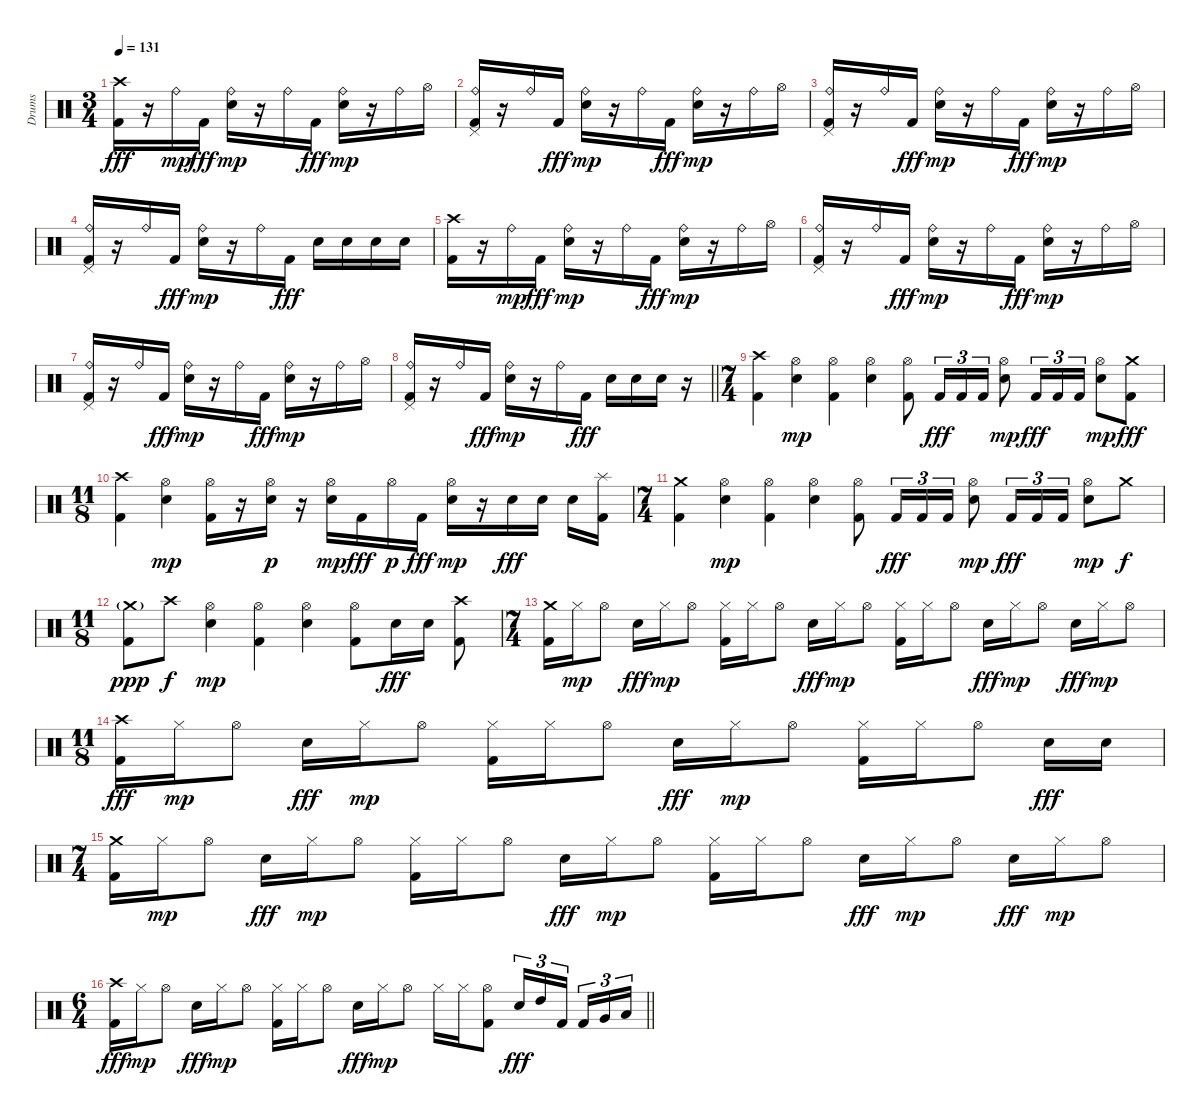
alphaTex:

\track ("Drums" "Drums") {instrument percussion}
\staff {score}
\articulation defaults
\ts (3 4)
\tempo 131
\clef neutral
\ks c
("Kick (hit) 2" "Crash high (hit)").16{dy fff} r.16 "Ride (bell)".16{dy mp} "Kick (hit) 2".16{dy fff} ("Electric Snare (hit)" "Ride (bell)").16{dy mp} r.16 "Ride (bell)".16 "Kick (hit) 2".16{dy fff} ("Electric Snare (hit)" "Ride (bell)").16{dy mp} r.16 "Ride (bell)".16 "Hi-Hat (open)".16 |
("Kick (hit) 2" "Ride (bell)" "Pedal Hi-Hat (hit)").16 r.16 "Ride (bell)".16 "Kick (hit) 2".16{dy fff} ("Electric Snare (hit)" "Ride (bell)").16{dy mp} r.16 "Ride (bell)".16 "Kick (hit) 2".16{dy fff} ("Electric Snare (hit)" "Ride (bell)").16{dy mp} r.16 "Ride (bell)".16 "Hi-Hat (open)".16 |
("Kick (hit) 2" "Ride (bell)" "Pedal Hi-Hat (hit)").16 r.16 "Ride (bell)".16 "Kick (hit) 2".16{dy fff} ("Electric Snare (hit)" "Ride (bell)").16{dy mp} r.16 "Ride (bell)".16 "Kick (hit) 2".16{dy fff} ("Electric Snare (hit)" "Ride (bell)").16{dy mp} r.16 "Ride (bell)".16 "Hi-Hat (open)".16 |
("Kick (hit) 2" "Ride (bell)" "Pedal Hi-Hat (hit)").16 r.16 "Ride (bell)".16 "Kick (hit) 2".16{dy fff} ("Electric Snare (hit)" "Ride (bell)").16{dy mp} r.16 "Ride (bell)".16 "Kick (hit) 2".16{dy fff} "Electric Snare (hit)".16 "Electric Snare (hit)".16 "Electric Snare (hit)".16 "Electric Snare (hit)".16 |
("Kick (hit) 2" "Crash high (hit)").16 r.16 "Ride (bell)".16{dy mp} "Kick (hit) 2".16{dy fff} ("Electric Snare (hit)" "Ride (bell)").16{dy mp} r.16 "Ride (bell)".16 "Kick (hit) 2".16{dy fff} ("Electric Snare (hit)" "Ride (bell)").16{dy mp} r.16 "Ride (bell)".16 "Hi-Hat (open)".16 |
("Kick (hit) 2" "Ride (bell)" "Pedal Hi-Hat (hit)").16 r.16 "Ride (bell)".16 "Kick (hit) 2".16{dy fff} ("Electric Snare (hit)" "Ride (bell)").16{dy mp} r.16 "Ride (bell)".16 "Kick (hit) 2".16{dy fff} ("Electric Snare (hit)" "Ride (bell)").16{dy mp} r.16 "Ride (bell)".16 "Hi-Hat (open)".16 |
("Kick (hit) 2" "Ride (bell)" "Pedal Hi-Hat (hit)").16 r.16 "Ride (bell)".16 "Kick (hit) 2".16{dy fff} ("Electric Snare (hit)" "Ride (bell)").16{dy mp} r.16 "Ride (bell)".16 "Kick (hit) 2".16{dy fff} ("Electric Snare (hit)" "Ride (bell)").16{dy mp} r.16 "Ride (bell)".16 "Hi-Hat (open)".16 |
\barLineRight lightlight
("Kick (hit) 2" "Ride (bell)" "Pedal Hi-Hat (hit)").16 r.16 "Ride (bell)".16 "Kick (hit) 2".16{dy fff} ("Electric Snare (hit)" "Ride (bell)").16{dy mp} r.16 "Ride (bell)".16 "Kick (hit) 2".16{dy fff} "Electric Snare (hit)".16 "Electric Snare (hit)".16 "Electric Snare (hit)".16 r.16 |
\ts (7 4)
("Kick (hit) 2" "Crash high (hit)").4 ("Electric Snare (hit)" "Hi-Hat (open)").4{dy mp} ("Kick (hit) 2" "Hi-Hat (open)").4 ("Electric Snare (hit)" "Hi-Hat (open)").4 ("Kick (hit) 2" "Hi-Hat (open)").8 "Kick (hit) 2".16{tu (3 2) dy fff} "Kick (hit) 2".16{tu (3 2)} "Kick (hit) 2".16{tu (3 2)} ("Electric Snare (hit)" "Hi-Hat (open)").8{dy mp} "Kick (hit) 2".16{tu (3 2) dy fff} "Kick (hit) 2".16{tu (3 2)} "Kick (hit) 2".16{tu (3 2)} ("Electric Snare (hit)" "Hi-Hat (open)").8{dy mp} ("Kick (hit) 2" "Crash medium (hit)").8{dy fff} |
\ts (11 8)
("Kick (hit) 2" "Crash high (hit)").4 ("Electric Snare (hit)" "Hi-Hat (open)").4{dy mp} ("Kick (hit) 2" "Hi-Hat (open)").16 r.16 ("Electric Snare (hit)" "Hi-Hat (open)").16{dy p} r.16 ("Electric Snare (hit)" "Hi-Hat (open)").16{dy mp} "Kick (hit) 2".16{dy fff} "Hi-Hat (open)".16{dy p} "Kick (hit) 2".16{dy fff} ("Electric Snare (hit)" "Hi-Hat (open)").16{dy mp} r.16 "Electric Snare (hit)".16{dy fff} "Electric Snare (hit)".16 "Electric Snare (hit)".16 ("Kick (hit) 2" "Splash (hit)").16 |
\ts (7 4)
("Kick (hit) 2" "Crash medium (hit)").4 ("Electric Snare (hit)" "Hi-Hat (open)").4{dy mp} ("Kick (hit) 2" "Hi-Hat (open)").4 ("Electric Snare (hit)" "Hi-Hat (open)").4 ("Kick (hit) 2" "Hi-Hat (open)").8 "Kick (hit) 2".16{tu (3 2) dy fff} "Kick (hit) 2".16{tu (3 2)} "Kick (hit) 2".16{tu (3 2)} ("Electric Snare (hit)" "Hi-Hat (open)").8{dy mp} "Kick (hit) 2".16{tu (3 2) dy fff} "Kick (hit) 2".16{tu (3 2)} "Kick (hit) 2".16{tu (3 2)} ("Electric Snare (hit)" "Hi-Hat (open)").8{dy mp} "Crash medium (hit)".8{dy f} |
\ts (11 8)
("Kick (hit) 2" "Crash medium (hit)"{g}).8{dy ppp} "Crash high (hit)".8{dy f} ("Electric Snare (hit)" "Hi-Hat (open)").4{dy mp} ("Kick (hit) 2" "Hi-Hat (open)").4 ("Electric Snare (hit)" "Hi-Hat (open)").4 ("Kick (hit) 2" "Hi-Hat (open)").8 "Electric Snare (hit)".16{dy fff} "Electric Snare (hit)".16 ("Kick (hit) 2" "Crash high (hit)").8 |
\ts (7 4)
("Kick (hit) 2" "Crash medium (hit)").16 "Hi-Hat (closed)".16{dy mp} "Hi-Hat (open)".8 "Electric Snare (hit)".16{dy fff} "Hi-Hat (closed)".16{dy mp} "Hi-Hat (open)".8 ("Kick (hit) 2" "Hi-Hat (closed)").16 "Hi-Hat (closed)".16 "Hi-Hat (open)".8 "Electric Snare (hit)".16{dy fff} "Hi-Hat (closed)".16{dy mp} "Hi-Hat (open)".8 ("Kick (hit) 2" "Hi-Hat (closed)").16 "Hi-Hat (closed)".16 "Hi-Hat (open)".8 "Electric Snare (hit)".16{dy fff} "Hi-Hat (closed)".16{dy mp} "Hi-Hat (open)".8 "Electric Snare (hit)".16{dy fff} "Hi-Hat (closed)".16{dy mp} "Hi-Hat (open)".8 |
\ts (11 8)
("Kick (hit) 2" "Crash high (hit)").16{dy fff} "Hi-Hat (closed)".16{dy mp} "Hi-Hat (open)".8 "Electric Snare (hit)".16{dy fff} "Hi-Hat (closed)".16{dy mp} "Hi-Hat (open)".8 ("Kick (hit) 2" "Hi-Hat (closed)").16 "Hi-Hat (closed)".16 "Hi-Hat (open)".8 "Electric Snare (hit)".16{dy fff} "Hi-Hat (closed)".16{dy mp} "Hi-Hat (open)".8 ("Kick (hit) 2" "Hi-Hat (closed)").16 "Hi-Hat (closed)".16 "Hi-Hat (open)".8 "Electric Snare (hit)".16{dy fff} "Electric Snare (hit)".16 |
\ts (7 4)
("Kick (hit) 2" "Crash medium (hit)").16 "Hi-Hat (closed)".16{dy mp} "Hi-Hat (open)".8 "Electric Snare (hit)".16{dy fff} "Hi-Hat (closed)".16{dy mp} "Hi-Hat (open)".8 ("Kick (hit) 2" "Hi-Hat (closed)").16 "Hi-Hat (closed)".16 "Hi-Hat (open)".8 "Electric Snare (hit)".16{dy fff} "Hi-Hat (closed)".16{dy mp} "Hi-Hat (open)".8 ("Kick (hit) 2" "Hi-Hat (closed)").16 "Hi-Hat (closed)".16 "Hi-Hat (open)".8 "Electric Snare (hit)".16{dy fff} "Hi-Hat (closed)".16{dy mp} "Hi-Hat (open)".8 "Electric Snare (hit)".16{dy fff} "Hi-Hat (closed)".16{dy mp} "Hi-Hat (open)".8 |
\ts (6 4)
\barLineRight lightlight
("Kick (hit) 2" "Crash high (hit)").16{dy fff} "Hi-Hat (closed)".16{dy mp} "Hi-Hat (open)".8 "Electric Snare (hit)".16{dy fff} "Hi-Hat (closed)".16{dy mp} "Hi-Hat (open)".8 ("Kick (hit) 2" "Hi-Hat (closed)").16 "Hi-Hat (closed)".16 "Hi-Hat (open)".8 "Electric Snare (hit)".16{dy fff} "Hi-Hat (closed)".16{dy mp} "Hi-Hat (open)".8 "Hi-Hat (closed)".16 "Hi-Hat (closed)".16 ("Kick (hit) 2" "Hi-Hat (open)").8 "Electric Snare (hit)".16{tu (3 2) dy fff} "High Tom (hit)".16{tu (3 2)} "Kick (hit) 2".16{tu (3 2) beam splitsecondary} "Kick (hit) 2".16{tu (3 2)} "Very Low Tom (hit)".16{tu (3 2)} "Low Floor Tom (hit)".16{tu (3 2)}
